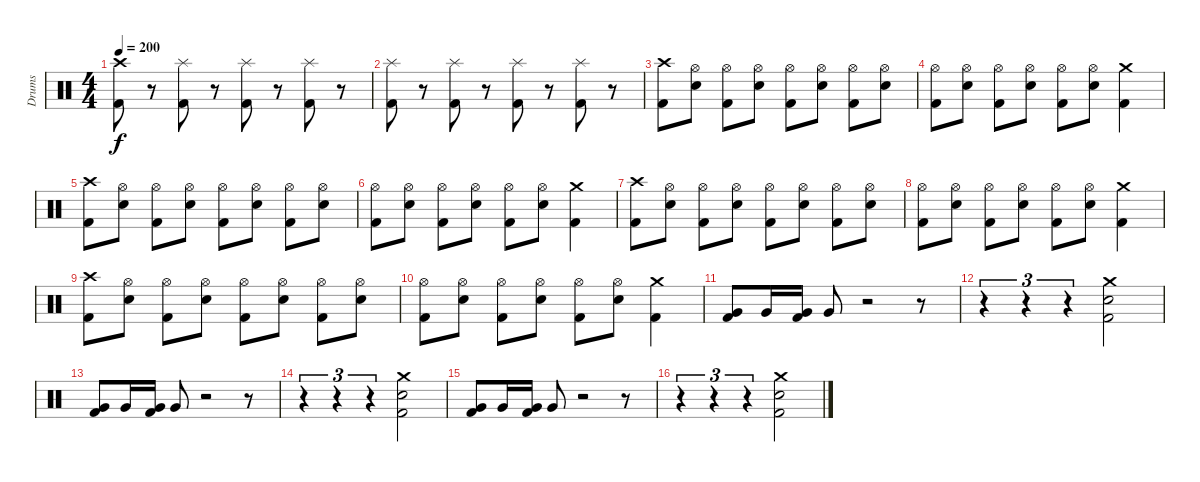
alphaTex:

\track ("Drums" "Drums") {instrument percussion}
\staff {score}
\articulation defaults
\ts (4 4)
\tempo 200
\clef neutral
\ks c
("Crash high (hit)" "Kick (hit) 2").8{dy f} r.8 ("Splash (hit)" "Kick (hit) 2").8 r.8 ("Splash (hit)" "Kick (hit) 2").8 r.8 ("Splash (hit)" "Kick (hit) 2").8 r.8 |
("Splash (hit)" "Kick (hit) 2").8 r.8 ("Splash (hit)" "Kick (hit) 2").8 r.8 ("Splash (hit)" "Kick (hit) 2").8 r.8 ("Splash (hit)" "Kick (hit) 2").8 r.8 |
("Crash high (hit)" "Kick (hit) 2").8 ("Hi-Hat (open)" "Electric Snare (hit)").8 ("Hi-Hat (open)" "Kick (hit) 2").8 ("Hi-Hat (open)" "Electric Snare (hit)").8 ("Hi-Hat (open)" "Kick (hit) 2").8 ("Hi-Hat (open)" "Electric Snare (hit)").8 ("Hi-Hat (open)" "Kick (hit) 2").8 ("Hi-Hat (open)" "Electric Snare (hit)").8 |
("Hi-Hat (open)" "Kick (hit) 2").8 ("Hi-Hat (open)" "Electric Snare (hit)").8 ("Hi-Hat (open)" "Kick (hit) 2").8 ("Hi-Hat (open)" "Electric Snare (hit)").8 ("Hi-Hat (open)" "Kick (hit) 2").8 ("Hi-Hat (open)" "Electric Snare (hit)").8 ("Crash medium (hit)" "Kick (hit) 2").4 |
("Crash high (hit)" "Kick (hit) 2").8 ("Hi-Hat (open)" "Electric Snare (hit)").8 ("Hi-Hat (open)" "Kick (hit) 2").8 ("Hi-Hat (open)" "Electric Snare (hit)").8 ("Hi-Hat (open)" "Kick (hit) 2").8 ("Hi-Hat (open)" "Electric Snare (hit)").8 ("Hi-Hat (open)" "Kick (hit) 2").8 ("Hi-Hat (open)" "Electric Snare (hit)").8 |
("Hi-Hat (open)" "Kick (hit) 2").8 ("Hi-Hat (open)" "Electric Snare (hit)").8 ("Hi-Hat (open)" "Kick (hit) 2").8 ("Hi-Hat (open)" "Electric Snare (hit)").8 ("Hi-Hat (open)" "Kick (hit) 2").8 ("Hi-Hat (open)" "Electric Snare (hit)").8 ("Crash medium (hit)" "Kick (hit) 2").4 |
("Crash high (hit)" "Kick (hit) 2").8 ("Hi-Hat (open)" "Electric Snare (hit)").8 ("Hi-Hat (open)" "Kick (hit) 2").8 ("Hi-Hat (open)" "Electric Snare (hit)").8 ("Hi-Hat (open)" "Kick (hit) 2").8 ("Hi-Hat (open)" "Electric Snare (hit)").8 ("Hi-Hat (open)" "Kick (hit) 2").8 ("Hi-Hat (open)" "Electric Snare (hit)").8 |
("Hi-Hat (open)" "Kick (hit) 2").8 ("Hi-Hat (open)" "Electric Snare (hit)").8 ("Hi-Hat (open)" "Kick (hit) 2").8 ("Hi-Hat (open)" "Electric Snare (hit)").8 ("Hi-Hat (open)" "Kick (hit) 2").8 ("Hi-Hat (open)" "Electric Snare (hit)").8 ("Crash medium (hit)" "Kick (hit) 2").4 |
("Crash high (hit)" "Kick (hit) 2").8 ("Hi-Hat (open)" "Electric Snare (hit)").8 ("Hi-Hat (open)" "Kick (hit) 2").8 ("Hi-Hat (open)" "Electric Snare (hit)").8 ("Hi-Hat (open)" "Kick (hit) 2").8 ("Hi-Hat (open)" "Electric Snare (hit)").8 ("Hi-Hat (open)" "Kick (hit) 2").8 ("Hi-Hat (open)" "Electric Snare (hit)").8 |
("Hi-Hat (open)" "Kick (hit) 2").8 ("Hi-Hat (open)" "Electric Snare (hit)").8 ("Hi-Hat (open)" "Kick (hit) 2").8 ("Hi-Hat (open)" "Electric Snare (hit)").8 ("Hi-Hat (open)" "Kick (hit) 2").8 ("Hi-Hat (open)" "Electric Snare (hit)").8 ("Crash medium (hit)" "Kick (hit) 2").4 |
("Very Low Tom (hit)" "Kick (hit) 2").8 "Very Low Tom (hit)".16 ("Very Low Tom (hit)" "Kick (hit) 2").16 "Very Low Tom (hit)".8 r.2 r.8 |
r.4{tu (3 2)} r.4{tu (3 2)} r.4{tu (3 2)} ("Crash medium (hit)" "Electric Snare (hit)" "Kick (hit) 2").2 |
("Very Low Tom (hit)" "Kick (hit) 2").8 "Very Low Tom (hit)".16 ("Very Low Tom (hit)" "Kick (hit) 2").16 "Very Low Tom (hit)".8 r.2 r.8 |
r.4{tu (3 2)} r.4{tu (3 2)} r.4{tu (3 2)} ("Crash medium (hit)" "Electric Snare (hit)" "Kick (hit) 2").2 |
("Very Low Tom (hit)" "Kick (hit) 2").8 "Very Low Tom (hit)".16 ("Very Low Tom (hit)" "Kick (hit) 2").16 "Very Low Tom (hit)".8 r.2 r.8 |
r.4{tu (3 2)} r.4{tu (3 2)} r.4{tu (3 2)} ("Crash medium (hit)" "Electric Snare (hit)" "Kick (hit) 2").2
